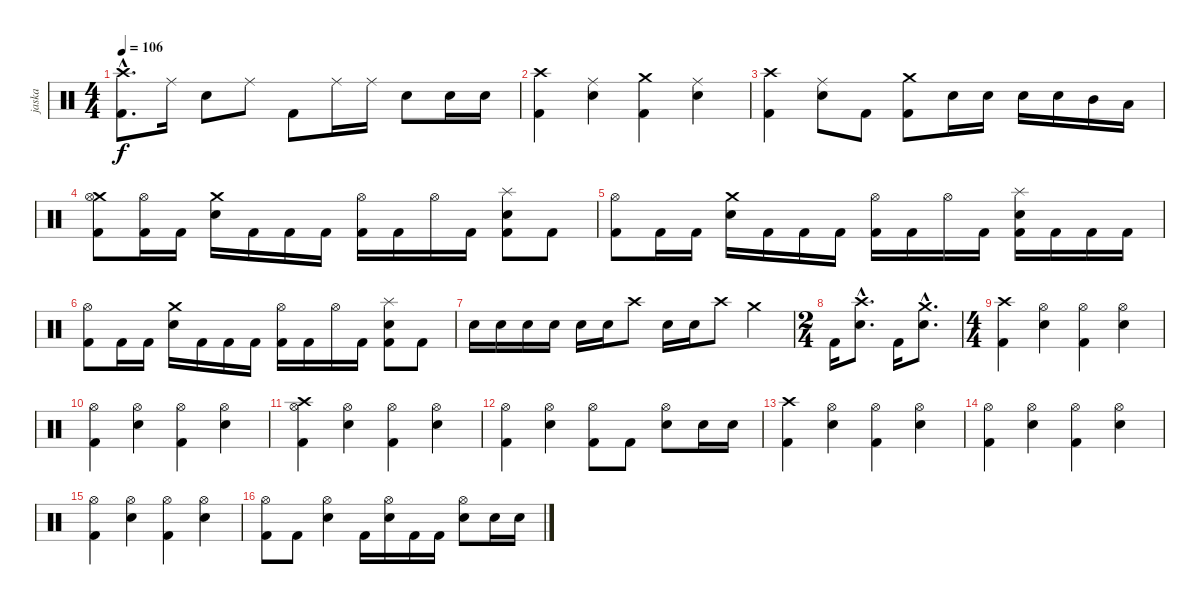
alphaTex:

\track ("jaska" "jaska") {instrument percussion}
\staff {score}
\articulation defaults
\ts (4 4)
\tempo 106
\clef neutral
\ks c
("Kick (hit) 2"{hac} "Crash high (hit)"{hac}).8{d dy f} "Ride (middle)".16 "Snare (hit) 2".8 "Ride (middle)".8 "Kick (hit) 2".8 "Ride (middle)".16 "Ride (middle)".16 "Snare (hit) 2".8 "Snare (hit) 2".16 "Snare (hit) 2".16 |
("Kick (hit) 2" "Crash high (hit)").4 ("Ride (middle)" "Snare (hit) 2").4 ("Kick (hit) 2" "Crash medium (hit)").4 ("Ride (middle)" "Snare (hit) 2").4 |
("Kick (hit) 2" "Crash high (hit)").4 ("Ride (middle)" "Snare (hit) 2").8 "Kick (hit) 2".8 ("Kick (hit) 2" "Crash medium (hit)").8 "Snare (hit) 2".16 "Snare (hit) 2".16 "Snare (hit) 2".16 "Snare (hit) 2".16 "Mid Tom (hit)".16 "Low Tom (hit)".16 |
("Kick (hit) 2" "Crash medium (hit)" "Hi-Hat (open)").8 ("Kick (hit) 2" "Hi-Hat (open)").16 "Kick (hit) 2".16 ("Crash medium (hit)" "Snare (hit) 2").16 "Kick (hit) 2".16 "Kick (hit) 2".16 "Kick (hit) 2".16 ("Kick (hit) 2" "Hi-Hat (open)").16 "Kick (hit) 2".16 "Hi-Hat (open)".16 "Kick (hit) 2".16 ("Kick (hit) 2" "Splash (hit)" "Snare (hit) 2").8 "Kick (hit) 2".8 |
("Kick (hit) 2" "Hi-Hat (open)").8 "Kick (hit) 2".16 "Kick (hit) 2".16 ("Crash medium (hit)" "Snare (hit) 2").16 "Kick (hit) 2".16 "Kick (hit) 2".16 "Kick (hit) 2".16 ("Kick (hit) 2" "Hi-Hat (open)").16 "Kick (hit) 2".16 "Hi-Hat (open)".16 "Kick (hit) 2".16 ("Kick (hit) 2" "Splash (hit)" "Snare (hit) 2").16 "Kick (hit) 2".16 "Kick (hit) 2".16 "Kick (hit) 2".16 |
("Kick (hit) 2" "Hi-Hat (open)").8 "Kick (hit) 2".16 "Kick (hit) 2".16 ("Crash medium (hit)" "Snare (hit) 2").16 "Kick (hit) 2".16 "Kick (hit) 2".16 "Kick (hit) 2".16 ("Kick (hit) 2" "Hi-Hat (open)").16 "Kick (hit) 2".16 "Hi-Hat (open)".16 "Kick (hit) 2".16 ("Kick (hit) 2" "Splash (hit)" "Snare (hit) 2").8 "Kick (hit) 2".8 |
"Snare (hit) 2".16 "Snare (hit) 2".16 "Snare (hit) 2".16 "Snare (hit) 2".16 "Snare (hit) 2".16 "Snare (hit) 2".16 "Crash high (hit)".8 "Snare (hit) 2".16 "Snare (hit) 2".16 "Crash high (hit)".8 "Crash medium (hit)".4 |
\ts (2 4)
"Kick (hit) 2".16 ("Crash high (hit)"{hac} "Snare (hit) 2"{hac}).8{d} "Kick (hit) 2".16 ("Crash medium (hit)"{hac} "Snare (hit) 2"{hac}).8{d} |
\ts (4 4)
("Kick (hit) 2" "Crash high (hit)").4 ("Hi-Hat (open)" "Snare (hit) 2").4 ("Kick (hit) 2" "Hi-Hat (open)").4 ("Hi-Hat (open)" "Snare (hit) 2").4 |
("Kick (hit) 2" "Hi-Hat (open)").4 ("Hi-Hat (open)" "Snare (hit) 2").4 ("Kick (hit) 2" "Hi-Hat (open)").4 ("Hi-Hat (open)" "Snare (hit) 2").4 |
("Kick (hit) 2" "Crash high (hit)" "Hi-Hat (open)").4 ("Hi-Hat (open)" "Snare (hit) 2").4 ("Kick (hit) 2" "Hi-Hat (open)").4 ("Hi-Hat (open)" "Snare (hit) 2").4 |
("Kick (hit) 2" "Hi-Hat (open)").4 ("Hi-Hat (open)" "Snare (hit) 2").4 ("Kick (hit) 2" "Hi-Hat (open)").8 "Kick (hit) 2".8 ("Hi-Hat (open)" "Snare (hit) 2").8 "Snare (hit) 2".16 "Snare (hit) 2".16 |
("Kick (hit) 2" "Crash high (hit)").4 ("Hi-Hat (open)" "Snare (hit) 2").4 ("Kick (hit) 2" "Hi-Hat (open)").4 ("Hi-Hat (open)" "Snare (hit) 2").4 |
("Kick (hit) 2" "Hi-Hat (open)").4 ("Hi-Hat (open)" "Snare (hit) 2").4 ("Kick (hit) 2" "Hi-Hat (open)").4 ("Hi-Hat (open)" "Snare (hit) 2").4 |
("Kick (hit) 2" "Hi-Hat (open)").4 ("Hi-Hat (open)" "Snare (hit) 2").4 ("Kick (hit) 2" "Hi-Hat (open)").4 ("Hi-Hat (open)" "Snare (hit) 2").4 |
("Kick (hit) 2" "Hi-Hat (open)").8 "Kick (hit) 2".8 ("Hi-Hat (open)" "Snare (hit) 2").4 "Kick (hit) 2".16 ("Hi-Hat (open)" "Snare (hit) 2").16 "Kick (hit) 2".16 "Kick (hit) 2".16 ("Hi-Hat (open)" "Snare (hit) 2").8 "Snare (hit) 2".16 "Snare (hit) 2".16
